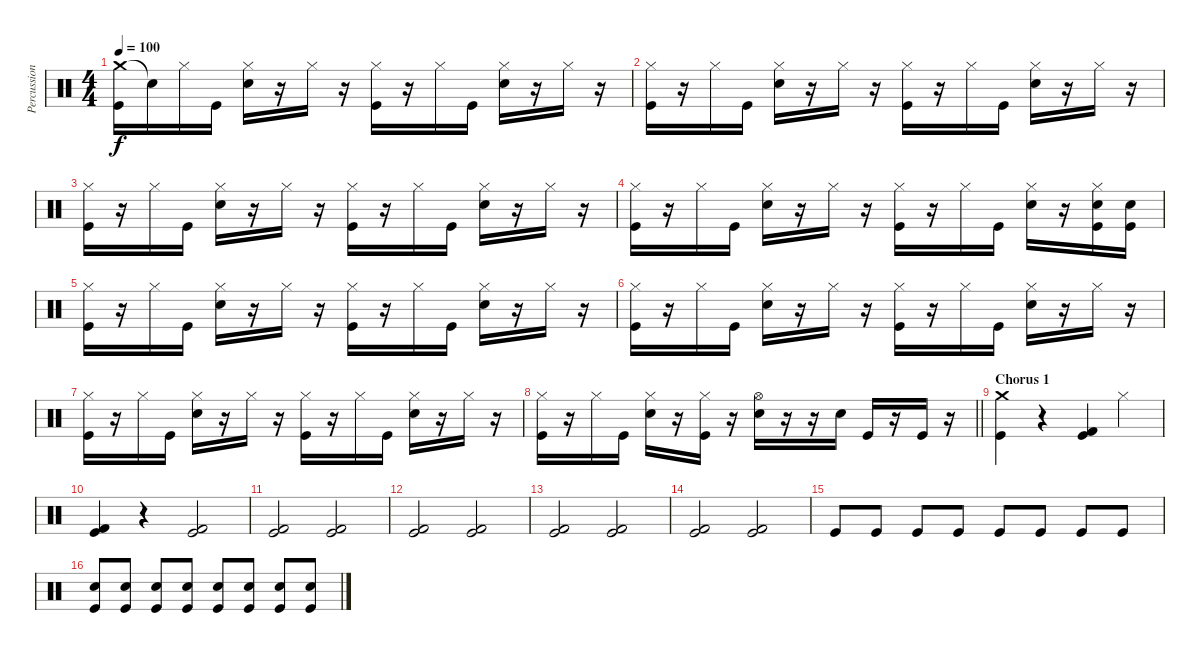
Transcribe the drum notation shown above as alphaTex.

\track ("Percussion (Chad Smith)" "Percussion") {instrument percussion}
\staff {score}
\articulation defaults
\ts (4 4)
\tempo 100
\clef neutral
\ks c
("Crash medium (hit)" "Kick (hit)").16{dy f} "Snare (hit)"{t}.16 "Hi-Hat (closed)".16 "Kick (hit)".16 ("Hi-Hat (closed)" "Snare (hit) 2").16 r.16 "Hi-Hat (closed)".16 r.16 ("Hi-Hat (closed)" "Kick (hit)").16 r.16 "Hi-Hat (closed)".16 "Kick (hit)".16 ("Hi-Hat (closed)" "Snare (hit) 2").16 r.16 "Hi-Hat (closed)".16 r.16 |
("Hi-Hat (closed)" "Kick (hit)").16 r.16 "Hi-Hat (closed)".16 "Kick (hit)".16 ("Hi-Hat (closed)" "Snare (hit) 2").16 r.16 "Hi-Hat (closed)".16 r.16 ("Hi-Hat (closed)" "Kick (hit)").16 r.16 "Hi-Hat (closed)".16 "Kick (hit)".16 ("Hi-Hat (closed)" "Snare (hit) 2").16 r.16 "Hi-Hat (closed)".16 r.16 |
("Hi-Hat (closed)" "Kick (hit)").16 r.16 "Hi-Hat (closed)".16 "Kick (hit)".16 ("Hi-Hat (closed)" "Snare (hit) 2").16 r.16 "Hi-Hat (closed)".16 r.16 ("Hi-Hat (closed)" "Kick (hit)").16 r.16 "Hi-Hat (closed)".16 "Kick (hit)".16 ("Hi-Hat (closed)" "Snare (hit) 2").16 r.16 "Hi-Hat (closed)".16 r.16 |
("Hi-Hat (closed)" "Kick (hit)").16 r.16 "Hi-Hat (closed)".16 "Kick (hit)".16 ("Hi-Hat (closed)" "Snare (hit) 2").16 r.16 "Hi-Hat (closed)".16 r.16 ("Hi-Hat (closed)" "Kick (hit)").16 r.16 "Hi-Hat (closed)".16 "Kick (hit)".16 ("Hi-Hat (closed)" "Snare (hit) 2").16 r.16 ("Hi-Hat (closed)" "Snare (hit) 2" "Kick (hit)").16 ("Snare (hit) 2" "Kick (hit)").16 |
("Hi-Hat (closed)" "Kick (hit)").16 r.16 "Hi-Hat (closed)".16 "Kick (hit)".16 ("Hi-Hat (closed)" "Snare (hit) 2").16 r.16 "Hi-Hat (closed)".16 r.16 ("Hi-Hat (closed)" "Kick (hit)").16 r.16 "Hi-Hat (closed)".16 "Kick (hit)".16 ("Hi-Hat (closed)" "Snare (hit) 2").16 r.16 "Hi-Hat (closed)".16 r.16 |
("Hi-Hat (closed)" "Kick (hit)").16 r.16 "Hi-Hat (closed)".16 "Kick (hit)".16 ("Hi-Hat (closed)" "Snare (hit) 2").16 r.16 "Hi-Hat (closed)".16 r.16 ("Hi-Hat (closed)" "Kick (hit)").16 r.16 "Hi-Hat (closed)".16 "Kick (hit)".16 ("Hi-Hat (closed)" "Snare (hit) 2").16 r.16 "Hi-Hat (closed)".16 r.16 |
("Hi-Hat (closed)" "Kick (hit)").16 r.16 "Hi-Hat (closed)".16 "Kick (hit)".16 ("Hi-Hat (closed)" "Snare (hit) 2").16 r.16 "Hi-Hat (closed)".16 r.16 ("Hi-Hat (closed)" "Kick (hit)").16 r.16 "Hi-Hat (closed)".16 "Kick (hit)".16 ("Hi-Hat (closed)" "Snare (hit) 2").16 r.16 "Hi-Hat (closed)".16 r.16 |
\barLineRight lightlight
("Hi-Hat (closed)" "Kick (hit)").16 r.16 "Hi-Hat (closed)".16 "Kick (hit)".16 ("Hi-Hat (closed)" "Snare (hit) 2").16 r.16 ("Hi-Hat (closed)" "Kick (hit)").16 r.16 ("Hi-Hat (open)" "Snare (hit) 2").16 r.16 r.16 "Snare (hit) 2".16 "Kick (hit)".16 r.16 "Kick (hit)".16 r.16 |
\section ("" "Chorus 1")
("Crash medium (hit)" "Kick (hit)").4 r.4 ("Kick (hit) 2" "Kick (hit)").4 "Hi-Hat (closed)".4 |
("Kick (hit) 2" "Kick (hit)").4 r.4 ("Kick (hit) 2" "Kick (hit)").2 |
("Kick (hit) 2" "Kick (hit)").2 ("Kick (hit) 2" "Kick (hit)").2 |
("Kick (hit) 2" "Kick (hit)").2 ("Kick (hit) 2" "Kick (hit)").2 |
("Kick (hit) 2" "Kick (hit)").2 ("Kick (hit) 2" "Kick (hit)").2 |
("Kick (hit) 2" "Kick (hit)").2 ("Kick (hit) 2" "Kick (hit)").2 |
"Kick (hit)".8 "Kick (hit)".8 "Kick (hit)".8 "Kick (hit)".8 "Kick (hit)".8 "Kick (hit)".8 "Kick (hit)".8 "Kick (hit)".8 |
("Snare (hit) 2" "Kick (hit)").8 ("Snare (hit) 2" "Kick (hit)").8 ("Snare (hit) 2" "Kick (hit)").8 ("Snare (hit) 2" "Kick (hit)").8 ("Snare (hit) 2" "Kick (hit)").8 ("Snare (hit) 2" "Kick (hit)").8 ("Snare (hit) 2" "Kick (hit)").8 ("Snare (hit) 2" "Kick (hit)").8
